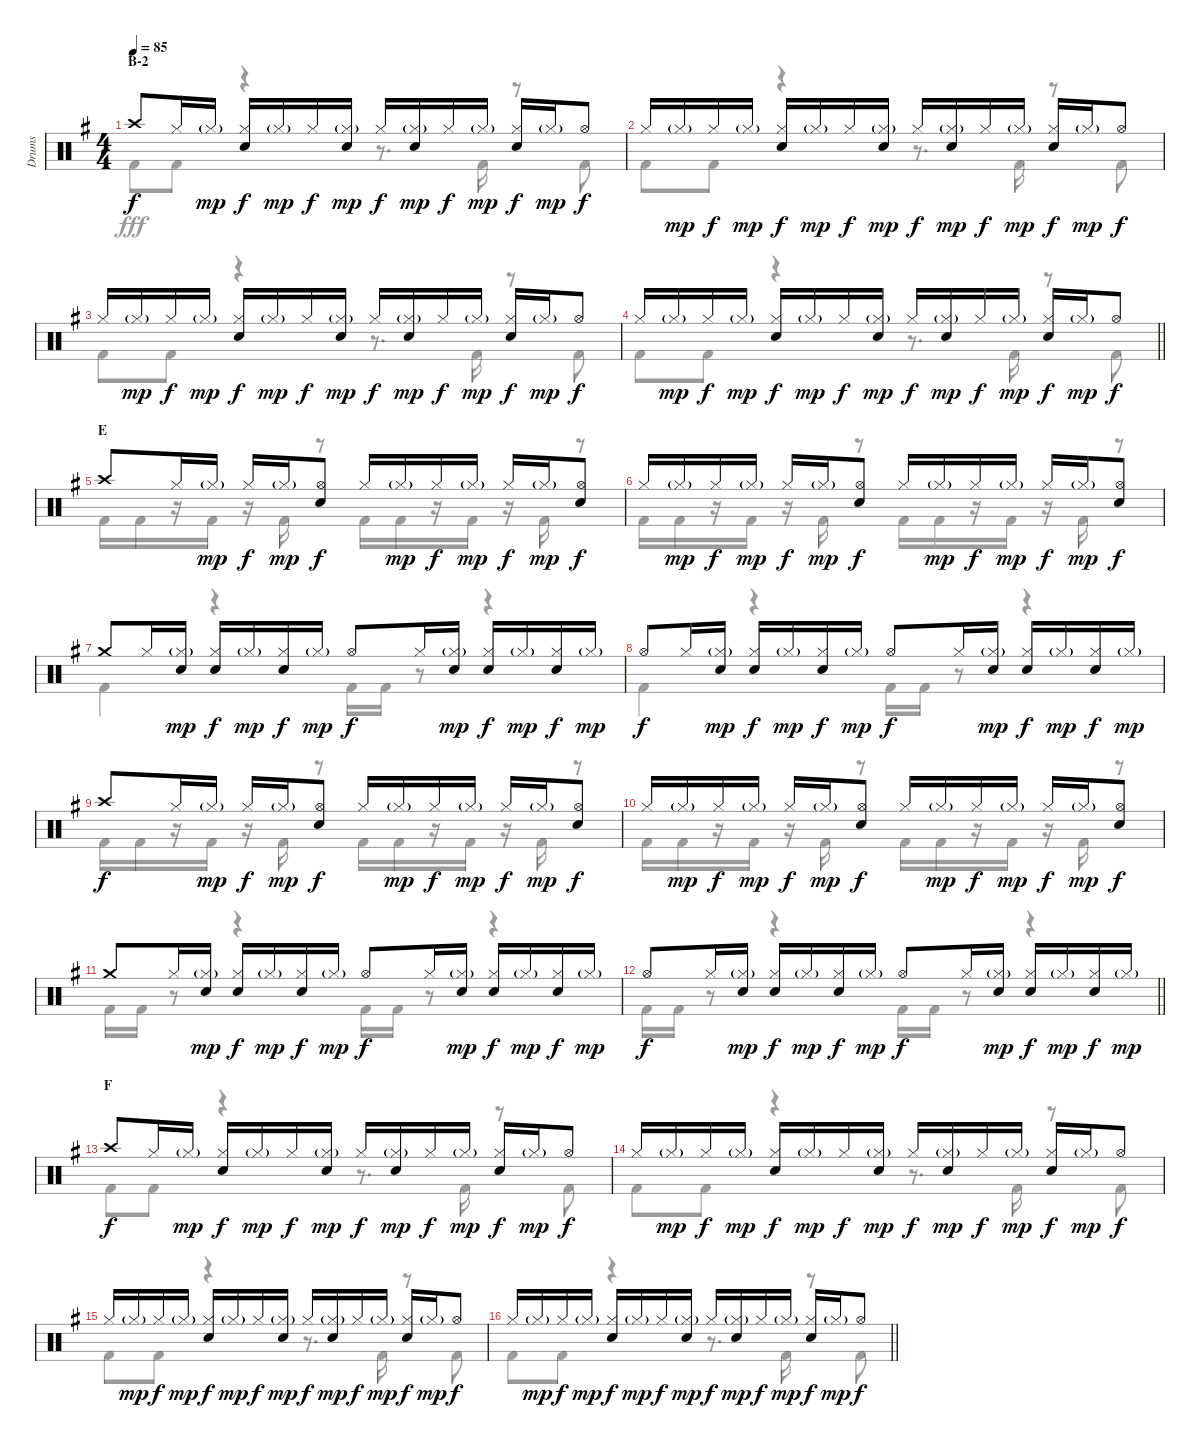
\track ("Drums" "Drums") {instrument percussion}
\staff {score}
\articulation defaults
\voice
\ts (4 4)
\section ("" "B-2")
\tempo 85
\clef neutral
\ks g "Crash high (hit)".8{dy f} "Hi-Hat (closed)".16 "Hi-Hat (closed)"{g}.16{dy mp}
("Hi-Hat (closed)" "Snare (hit) 2").16{dy f} "Hi-Hat (closed)"{g}.16{dy mp} "Hi-Hat (closed)".16{dy f} ("Hi-Hat (closed)"{g} "Snare (hit) 2").16{dy mp} "Hi-Hat (closed)".16{dy f} ("Hi-Hat (closed)"{g} "Snare (hit) 2").16{dy mp} "Hi-Hat (closed)".16{dy f} "Hi-Hat (closed)"{g}.16{dy mp} ("Hi-Hat (closed)" "Snare (hit) 2").16{dy f} "Hi-Hat (closed)"{g}.16{dy mp} "Hi-Hat (open)".8{dy f} |
"Hi-Hat (closed)".16 "Hi-Hat (closed)"{g}.16{dy mp} "Hi-Hat (closed)".16{dy f} "Hi-Hat (closed)"{g}.16{dy mp} ("Hi-Hat (closed)" "Snare (hit) 2").16{dy f} "Hi-Hat (closed)"{g}.16{dy mp} "Hi-Hat (closed)".16{dy f} ("Hi-Hat (closed)"{g} "Snare (hit) 2").16{dy mp} "Hi-Hat (closed)".16{dy f} ("Hi-Hat (closed)"{g} "Snare (hit) 2").16{dy mp} "Hi-Hat (closed)".16{dy f} "Hi-Hat (closed)"{g}.16{dy mp} ("Hi-Hat (closed)" "Snare (hit) 2").16{dy f} "Hi-Hat (closed)"{g}.16{dy mp} "Hi-Hat (open)".8{dy f} |
"Hi-Hat (closed)".16 "Hi-Hat (closed)"{g}.16{dy mp} "Hi-Hat (closed)".16{dy f} "Hi-Hat (closed)"{g}.16{dy mp} ("Hi-Hat (closed)" "Snare (hit) 2").16{dy f} "Hi-Hat (closed)"{g}.16{dy mp} "Hi-Hat (closed)".16{dy f} ("Hi-Hat (closed)"{g} "Snare (hit) 2").16{dy mp} "Hi-Hat (closed)".16{dy f} ("Hi-Hat (closed)"{g} "Snare (hit) 2").16{dy mp} "Hi-Hat (closed)".16{dy f} "Hi-Hat (closed)"{g}.16{dy mp} ("Hi-Hat (closed)" "Snare (hit) 2").16{dy f} "Hi-Hat (closed)"{g}.16{dy mp} "Hi-Hat (open)".8{dy f} |
\barLineRight lightlight "Hi-Hat (closed)".16 "Hi-Hat (closed)"{g}.16{dy mp} "Hi-Hat (closed)".16{dy f} "Hi-Hat (closed)"{g}.16{dy mp}
("Hi-Hat (closed)" "Snare (hit) 2").16{dy f} "Hi-Hat (closed)"{g}.16{dy mp} "Hi-Hat (closed)".16{dy f} ("Hi-Hat (closed)"{g} "Snare (hit) 2").16{dy mp} "Hi-Hat (closed)".16{dy f} ("Hi-Hat (closed)"{g} "Snare (hit) 2").16{dy mp} "Hi-Hat (closed)".16{dy f} "Hi-Hat (closed)"{g}.16{dy mp} ("Hi-Hat (closed)" "Snare (hit) 2").16{dy f} "Hi-Hat (closed)"{g}.16{dy mp} "Hi-Hat (open)".8{dy f} |
\section ("" "E")
"Crash high (hit)".8 "Hi-Hat (closed)".16 "Hi-Hat (closed)"{g}.16{dy mp} "Hi-Hat (closed)".16{dy f} "Hi-Hat (closed)"{g}.16{dy mp} ("Hi-Hat (open)" "Snare (hit) 2").8{dy f} "Hi-Hat (closed)".16 "Hi-Hat (closed)"{g}.16{dy mp} "Hi-Hat (closed)".16{dy f} "Hi-Hat (closed)"{g}.16{dy mp} "Hi-Hat (closed)".16{dy f} "Hi-Hat (closed)"{g}.16{dy mp} ("Hi-Hat (open)" "Snare (hit) 2").8{dy f} |
"Hi-Hat (closed)".16 "Hi-Hat (closed)"{g}.16{dy mp} "Hi-Hat (closed)".16{dy f} "Hi-Hat (closed)"{g}.16{dy mp} "Hi-Hat (closed)".16{dy f} "Hi-Hat (closed)"{g}.16{dy mp} ("Hi-Hat (open)" "Snare (hit) 2").8{dy f} "Hi-Hat (closed)".16 "Hi-Hat (closed)"{g}.16{dy mp} "Hi-Hat (closed)".16{dy f} "Hi-Hat (closed)"{g}.16{dy mp} "Hi-Hat (closed)".16{dy f} "Hi-Hat (closed)"{g}.16{dy mp} ("Hi-Hat (open)" "Snare (hit) 2").8{dy f} |
"Crash medium (hit)".8 "Hi-Hat (closed)".16 ("Hi-Hat (closed)"{g} "Snare (hit) 2").16{dy mp} ("Hi-Hat (closed)" "Snare (hit) 2").16{dy f} "Hi-Hat (closed)"{g}.16{dy mp} ("Hi-Hat (closed)" "Snare (hit) 2").16{dy f} "Hi-Hat (closed)"{g}.16{dy mp} "Hi-Hat (open)".8{dy f} "Hi-Hat (closed)".16 ("Hi-Hat (closed)"{g} "Snare (hit) 2").16{dy mp} ("Hi-Hat (closed)" "Snare (hit) 2").16{dy f} "Hi-Hat (closed)"{g}.16{dy mp} ("Hi-Hat (closed)" "Snare (hit) 2").16{dy f} "Hi-Hat (closed)"{g}.16{dy mp} |
"Hi-Hat (open)".8{dy f} "Hi-Hat (closed)".16 ("Hi-Hat (closed)"{g} "Snare (hit) 2").16{dy mp} ("Hi-Hat (closed)" "Snare (hit) 2").16{dy f} "Hi-Hat (closed)"{g}.16{dy mp} ("Hi-Hat (closed)" "Snare (hit) 2").16{dy f} "Hi-Hat (closed)"{g}.16{dy mp} "Hi-Hat (open)".8{dy f} "Hi-Hat (closed)".16 ("Hi-Hat (closed)"{g} "Snare (hit) 2").16{dy mp} ("Hi-Hat (closed)" "Snare (hit) 2").16{dy f} "Hi-Hat (closed)"{g}.16{dy mp} ("Hi-Hat (closed)" "Snare (hit) 2").16{dy f} "Hi-Hat (closed)"{g}.16{dy mp} |
"Crash high (hit)".8{dy f} "Hi-Hat (closed)".16 "Hi-Hat (closed)"{g}.16{dy mp} "Hi-Hat (closed)".16{dy f} "Hi-Hat (closed)"{g}.16{dy mp} ("Hi-Hat (open)" "Snare (hit) 2").8{dy f} "Hi-Hat (closed)".16 "Hi-Hat (closed)"{g}.16{dy mp} "Hi-Hat (closed)".16{dy f} "Hi-Hat (closed)"{g}.16{dy mp} "Hi-Hat (closed)".16{dy f} "Hi-Hat (closed)"{g}.16{dy mp} ("Hi-Hat (open)" "Snare (hit) 2").8{dy f} |
"Hi-Hat (closed)".16 "Hi-Hat (closed)"{g}.16{dy mp} "Hi-Hat (closed)".16{dy f} "Hi-Hat (closed)"{g}.16{dy mp} "Hi-Hat (closed)".16{dy f} "Hi-Hat (closed)"{g}.16{dy mp} ("Hi-Hat (open)" "Snare (hit) 2").8{dy f} "Hi-Hat (closed)".16 "Hi-Hat (closed)"{g}.16{dy mp} "Hi-Hat (closed)".16{dy f} "Hi-Hat (closed)"{g}.16{dy mp} "Hi-Hat (closed)".16{dy f} "Hi-Hat (closed)"{g}.16{dy mp} ("Hi-Hat (open)" "Snare (hit) 2").8{dy f} |
"Crash medium (hit)".8 "Hi-Hat (closed)".16 ("Hi-Hat (closed)"{g} "Snare (hit) 2").16{dy mp} ("Hi-Hat (closed)" "Snare (hit) 2").16{dy f} "Hi-Hat (closed)"{g}.16{dy mp} ("Hi-Hat (closed)" "Snare (hit) 2").16{dy f} "Hi-Hat (closed)"{g}.16{dy mp} "Hi-Hat (open)".8{dy f} "Hi-Hat (closed)".16 ("Hi-Hat (closed)"{g} "Snare (hit) 2").16{dy mp} ("Hi-Hat (closed)" "Snare (hit) 2").16{dy f} "Hi-Hat (closed)"{g}.16{dy mp} ("Hi-Hat (closed)" "Snare (hit) 2").16{dy f} "Hi-Hat (closed)"{g}.16{dy mp} |
\barLineRight lightlight "Hi-Hat (open)".8{dy f} "Hi-Hat (closed)".16
("Hi-Hat (closed)"{g} "Snare (hit) 2").16{dy mp} ("Hi-Hat (closed)" "Snare (hit) 2").16{dy f} "Hi-Hat (closed)"{g}.16{dy mp} ("Hi-Hat (closed)" "Snare (hit) 2").16{dy f} "Hi-Hat (closed)"{g}.16{dy mp} "Hi-Hat (open)".8{dy f} "Hi-Hat (closed)".16 ("Hi-Hat (closed)"{g} "Snare (hit) 2").16{dy mp} ("Hi-Hat (closed)" "Snare (hit) 2").16{dy f} "Hi-Hat (closed)"{g}.16{dy mp} ("Hi-Hat (closed)" "Snare (hit) 2").16{dy f} "Hi-Hat (closed)"{g}.16{dy mp} |
\section ("" "F")
"Crash high (hit)".8{dy f} "Hi-Hat (closed)".16 "Hi-Hat (closed)"{g}.16{dy mp} ("Hi-Hat (closed)" "Snare (hit) 2").16{dy f} "Hi-Hat (closed)"{g}.16{dy mp} "Hi-Hat (closed)".16{dy f} ("Hi-Hat (closed)"{g} "Snare (hit) 2").16{dy mp} "Hi-Hat (closed)".16{dy f} ("Hi-Hat (closed)"{g} "Snare (hit) 2").16{dy mp} "Hi-Hat (closed)".16{dy f} "Hi-Hat (closed)"{g}.16{dy mp} ("Hi-Hat (closed)" "Snare (hit) 2").16{dy f} "Hi-Hat (closed)"{g}.16{dy mp} "Hi-Hat (open)".8{dy f} |
"Hi-Hat (closed)".16 "Hi-Hat (closed)"{g}.16{dy mp} "Hi-Hat (closed)".16{dy f} "Hi-Hat (closed)"{g}.16{dy mp} ("Hi-Hat (closed)" "Snare (hit) 2").16{dy f} "Hi-Hat (closed)"{g}.16{dy mp} "Hi-Hat (closed)".16{dy f} ("Hi-Hat (closed)"{g} "Snare (hit) 2").16{dy mp} "Hi-Hat (closed)".16{dy f} ("Hi-Hat (closed)"{g} "Snare (hit) 2").16{dy mp} "Hi-Hat (closed)".16{dy f} "Hi-Hat (closed)"{g}.16{dy mp} ("Hi-Hat (closed)" "Snare (hit) 2").16{dy f} "Hi-Hat (closed)"{g}.16{dy mp} "Hi-Hat (open)".8{dy f} |
"Hi-Hat (closed)".16 "Hi-Hat (closed)"{g}.16{dy mp} "Hi-Hat (closed)".16{dy f} "Hi-Hat (closed)"{g}.16{dy mp} ("Hi-Hat (closed)" "Snare (hit) 2").16{dy f} "Hi-Hat (closed)"{g}.16{dy mp} "Hi-Hat (closed)".16{dy f} ("Hi-Hat (closed)"{g} "Snare (hit) 2").16{dy mp} "Hi-Hat (closed)".16{dy f} ("Hi-Hat (closed)"{g} "Snare (hit) 2").16{dy mp} "Hi-Hat (closed)".16{dy f} "Hi-Hat (closed)"{g}.16{dy mp} ("Hi-Hat (closed)" "Snare (hit) 2").16{dy f} "Hi-Hat (closed)"{g}.16{dy mp} "Hi-Hat (open)".8{dy f} |
\barLineRight lightlight "Hi-Hat (closed)".16 "Hi-Hat (closed)"{g}.16{dy mp} "Hi-Hat (closed)".16{dy f} "Hi-Hat (closed)"{g}.16{dy mp}
("Hi-Hat (closed)" "Snare (hit) 2").16{dy f} "Hi-Hat (closed)"{g}.16{dy mp} "Hi-Hat (closed)".16{dy f} ("Hi-Hat (closed)"{g} "Snare (hit) 2").16{dy mp} "Hi-Hat (closed)".16{dy f} ("Hi-Hat (closed)"{g} "Snare (hit) 2").16{dy mp} "Hi-Hat (closed)".16{dy f} "Hi-Hat (closed)"{g}.16{dy mp} ("Hi-Hat (closed)" "Snare (hit) 2").16{dy f} "Hi-Hat (closed)"{g}.16{dy mp} "Hi-Hat (open)".8{dy f}
\voice
\clef neutral
\ottava regular
\simile none
\ks g "Kick (hit) 2".8{dy fff} "Kick (hit) 2".8
r.4 r.8{d} "Kick (hit) 2".16 r.8 "Kick (hit) 2".8 |
"Kick (hit) 2".8 "Kick (hit) 2".8 r.4 r.8{d} "Kick (hit) 2".16 r.8 "Kick (hit) 2".8 |
"Kick (hit) 2".8 "Kick (hit) 2".8 r.4 r.8{d} "Kick (hit) 2".16 r.8 "Kick (hit) 2".8 |
\barLineRight lightlight "Kick (hit) 2".8 "Kick (hit) 2".8
r.4 r.8{d} "Kick (hit) 2".16 r.8 "Kick (hit) 2".8 |
"Kick (hit) 2".16 "Kick (hit) 2".16 r.16 "Kick (hit) 2".16 r.16 "Kick (hit) 2".16 r.8 "Kick (hit) 2".16 "Kick (hit) 2".16 r.16 "Kick (hit) 2".16 r.16 "Kick (hit) 2".16 r.8 |
"Kick (hit) 2".16 "Kick (hit) 2".16 r.16 "Kick (hit) 2".16 r.16 "Kick (hit) 2".16 r.8 "Kick (hit) 2".16 "Kick (hit) 2".16 r.16 "Kick (hit) 2".16 r.16 "Kick (hit) 2".16 r.8 |
"Kick (hit) 2".4 r.4 "Kick (hit) 2".16 "Kick (hit) 2".16 r.8 r.4 |
"Kick (hit) 2".4 r.4 "Kick (hit) 2".16 "Kick (hit) 2".16 r.8 r.4 |
"Kick (hit) 2".16 "Kick (hit) 2".16 r.16 "Kick (hit) 2".16 r.16 "Kick (hit) 2".16 r.8 "Kick (hit) 2".16 "Kick (hit) 2".16 r.16 "Kick (hit) 2".16 r.16 "Kick (hit) 2".16 r.8 |
"Kick (hit) 2".16 "Kick (hit) 2".16 r.16 "Kick (hit) 2".16 r.16 "Kick (hit) 2".16 r.8 "Kick (hit) 2".16 "Kick (hit) 2".16 r.16 "Kick (hit) 2".16 r.16 "Kick (hit) 2".16 r.8 |
"Kick (hit) 2".16 "Kick (hit) 2".16 r.8 r.4 "Kick (hit) 2".16 "Kick (hit) 2".16 r.8 r.4 |
\barLineRight lightlight "Kick (hit) 2".16 "Kick (hit) 2".16
r.8 r.4 "Kick (hit) 2".16 "Kick (hit) 2".16 r.8 r.4 |
"Kick (hit) 2".8 "Kick (hit) 2".8 r.4 r.8{d} "Kick (hit) 2".16 r.8 "Kick (hit) 2".8 |
"Kick (hit) 2".8 "Kick (hit) 2".8 r.4 r.8{d} "Kick (hit) 2".16 r.8 "Kick (hit) 2".8 |
"Kick (hit) 2".8 "Kick (hit) 2".8 r.4 r.8{d} "Kick (hit) 2".16 r.8 "Kick (hit) 2".8 |
\barLineRight lightlight "Kick (hit) 2".8 "Kick (hit) 2".8
r.4 r.8{d} "Kick (hit) 2".16 r.8 "Kick (hit) 2".8
